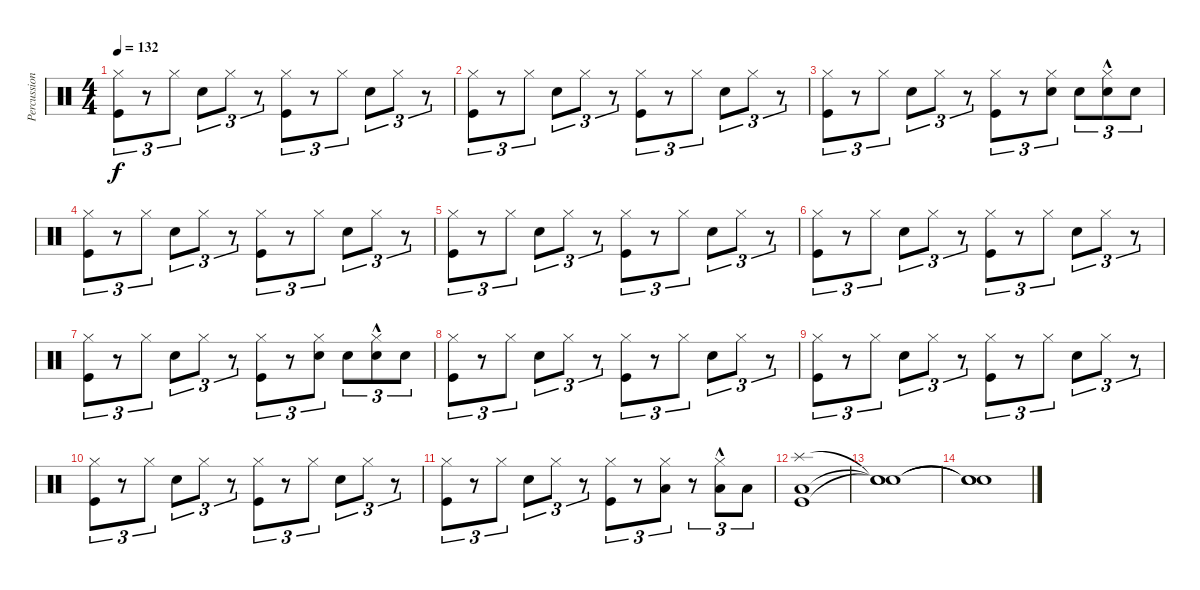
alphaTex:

\track ("Percussions" "Percussion") {instrument percussion}
\staff {score}
\articulation defaults
\ts (4 4)
\tempo 132
\clef neutral
\ks c
("Kick (hit)" "Hi-Hat (closed)").8{tu (3 2) dy f} r.8{tu (3 2)} "Hi-Hat (closed)".8{tu (3 2)} "Snare (hit) 2".8{tu (3 2)} "Hi-Hat (closed)".8{tu (3 2)} r.8{tu (3 2)} ("Kick (hit)" "Hi-Hat (closed)").8{tu (3 2)} r.8{tu (3 2)} "Hi-Hat (closed)".8{tu (3 2)} "Snare (hit) 2".8{tu (3 2)} "Hi-Hat (closed)".8{tu (3 2)} r.8{tu (3 2)} |
("Kick (hit)" "Hi-Hat (closed)").8{tu (3 2)} r.8{tu (3 2)} "Hi-Hat (closed)".8{tu (3 2)} "Snare (hit) 2".8{tu (3 2)} "Hi-Hat (closed)".8{tu (3 2)} r.8{tu (3 2)} ("Kick (hit)" "Hi-Hat (closed)").8{tu (3 2)} r.8{tu (3 2)} "Hi-Hat (closed)".8{tu (3 2)} "Snare (hit) 2".8{tu (3 2)} "Hi-Hat (closed)".8{tu (3 2)} r.8{tu (3 2)} |
("Kick (hit)" "Hi-Hat (closed)").8{tu (3 2)} r.8{tu (3 2)} "Hi-Hat (closed)".8{tu (3 2)} "Snare (hit) 2".8{tu (3 2)} "Hi-Hat (closed)".8{tu (3 2)} r.8{tu (3 2)} ("Kick (hit)" "Hi-Hat (closed)").8{tu (3 2)} r.8{tu (3 2)} ("Hi-Hat (closed)" "Snare (hit) 2").8{tu (3 2)} "Snare (hit) 2".8{tu (3 2)} ("Hi-Hat (closed)"{hac} "Snare (hit) 2"{hac}).8{tu (3 2)} "Snare (hit) 2".8{tu (3 2)} |
("Kick (hit)" "Hi-Hat (closed)").8{tu (3 2)} r.8{tu (3 2)} "Hi-Hat (closed)".8{tu (3 2)} "Snare (hit) 2".8{tu (3 2)} "Hi-Hat (closed)".8{tu (3 2)} r.8{tu (3 2)} ("Kick (hit)" "Hi-Hat (closed)").8{tu (3 2)} r.8{tu (3 2)} "Hi-Hat (closed)".8{tu (3 2)} "Snare (hit) 2".8{tu (3 2)} "Hi-Hat (closed)".8{tu (3 2)} r.8{tu (3 2)} |
("Kick (hit)" "Hi-Hat (closed)").8{tu (3 2)} r.8{tu (3 2)} "Hi-Hat (closed)".8{tu (3 2)} "Snare (hit) 2".8{tu (3 2)} "Hi-Hat (closed)".8{tu (3 2)} r.8{tu (3 2)} ("Kick (hit)" "Hi-Hat (closed)").8{tu (3 2)} r.8{tu (3 2)} "Hi-Hat (closed)".8{tu (3 2)} "Snare (hit) 2".8{tu (3 2)} "Hi-Hat (closed)".8{tu (3 2)} r.8{tu (3 2)} |
("Kick (hit)" "Hi-Hat (closed)").8{tu (3 2)} r.8{tu (3 2)} "Hi-Hat (closed)".8{tu (3 2)} "Snare (hit) 2".8{tu (3 2)} "Hi-Hat (closed)".8{tu (3 2)} r.8{tu (3 2)} ("Kick (hit)" "Hi-Hat (closed)").8{tu (3 2)} r.8{tu (3 2)} "Hi-Hat (closed)".8{tu (3 2)} "Snare (hit) 2".8{tu (3 2)} "Hi-Hat (closed)".8{tu (3 2)} r.8{tu (3 2)} |
("Kick (hit)" "Hi-Hat (closed)").8{tu (3 2)} r.8{tu (3 2)} "Hi-Hat (closed)".8{tu (3 2)} "Snare (hit) 2".8{tu (3 2)} "Hi-Hat (closed)".8{tu (3 2)} r.8{tu (3 2)} ("Kick (hit)" "Hi-Hat (closed)").8{tu (3 2)} r.8{tu (3 2)} ("Hi-Hat (closed)" "Snare (hit) 2").8{tu (3 2)} "Snare (hit) 2".8{tu (3 2)} ("Hi-Hat (closed)"{hac} "Snare (hit) 2"{hac}).8{tu (3 2)} "Snare (hit) 2".8{tu (3 2)} |
("Kick (hit)" "Hi-Hat (closed)").8{tu (3 2)} r.8{tu (3 2)} "Hi-Hat (closed)".8{tu (3 2)} "Snare (hit) 2".8{tu (3 2)} "Hi-Hat (closed)".8{tu (3 2)} r.8{tu (3 2)} ("Kick (hit)" "Hi-Hat (closed)").8{tu (3 2)} r.8{tu (3 2)} "Hi-Hat (closed)".8{tu (3 2)} "Snare (hit) 2".8{tu (3 2)} "Hi-Hat (closed)".8{tu (3 2)} r.8{tu (3 2)} |
("Kick (hit)" "Hi-Hat (closed)").8{tu (3 2)} r.8{tu (3 2)} "Hi-Hat (closed)".8{tu (3 2)} "Snare (hit) 2".8{tu (3 2)} "Hi-Hat (closed)".8{tu (3 2)} r.8{tu (3 2)} ("Kick (hit)" "Hi-Hat (closed)").8{tu (3 2)} r.8{tu (3 2)} "Hi-Hat (closed)".8{tu (3 2)} "Snare (hit) 2".8{tu (3 2)} "Hi-Hat (closed)".8{tu (3 2)} r.8{tu (3 2)} |
("Kick (hit)" "Hi-Hat (closed)").8{tu (3 2)} r.8{tu (3 2)} "Hi-Hat (closed)".8{tu (3 2)} "Snare (hit) 2".8{tu (3 2)} "Hi-Hat (closed)".8{tu (3 2)} r.8{tu (3 2)} ("Kick (hit)" "Hi-Hat (closed)").8{tu (3 2)} r.8{tu (3 2)} "Hi-Hat (closed)".8{tu (3 2)} "Snare (hit) 2".8{tu (3 2)} "Hi-Hat (closed)".8{tu (3 2)} r.8{tu (3 2)} |
("Kick (hit)" "Hi-Hat (closed)").8{tu (3 2)} r.8{tu (3 2)} "Hi-Hat (closed)".8{tu (3 2)} "Snare (hit) 2".8{tu (3 2)} "Hi-Hat (closed)".8{tu (3 2)} r.8{tu (3 2)} ("Kick (hit)" "Hi-Hat (closed)").8{tu (3 2)} r.8{tu (3 2)} ("Hi-Hat (closed)" "Low Floor Tom (hit)").8{tu (3 2)} r.8{tu (3 2)} ("Hi-Hat (closed)"{hac} "Low Floor Tom (hit)"{hac}).8{tu (3 2)} "Low Floor Tom (hit)".8{tu (3 2)} |
("Kick (hit)" "Splash (hit)" "Low Floor Tom (hit)").1 |
("Snare (hit)"{t} "Snare (hit)"{t} "Snare (hit)"{t}).1 |
("Snare (hit)"{t} "Snare (hit)"{t} "Snare (hit)"{t}).1
